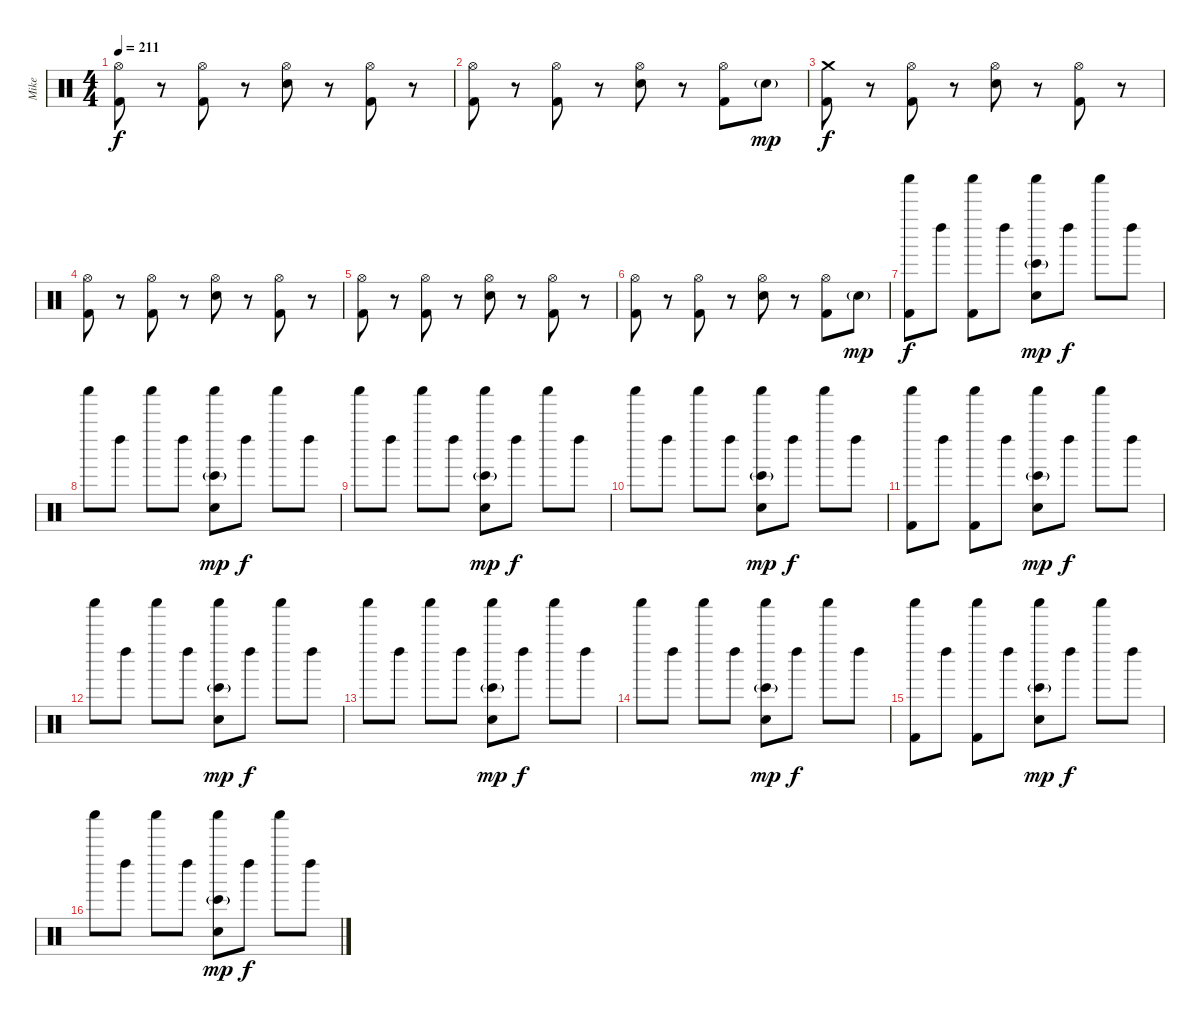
\track ("Mike" "Mike") {instrument percussion}
\staff {score}
\articulation defaults
\ts (4 4)
\tempo 211
\clef neutral
\ks c
("Hi-Hat (open)" "Kick (hit) 2").8{dy f} r.8 ("Hi-Hat (open)" "Kick (hit) 2").8 r.8 ("Hi-Hat (open)" "Electric Snare (hit)").8 r.8 ("Hi-Hat (open)" "Kick (hit) 2").8 r.8 |
("Hi-Hat (open)" "Kick (hit) 2").8 r.8 ("Hi-Hat (open)" "Kick (hit) 2").8 r.8 ("Hi-Hat (open)" "Electric Snare (hit)").8 r.8 ("Hi-Hat (open)" "Kick (hit) 2").8 "Electric Snare (hit)"{g}.8{dy mp} |
("Crash medium (hit)" "Kick (hit) 2").8{dy f} r.8 ("Hi-Hat (open)" "Kick (hit) 2").8 r.8 ("Hi-Hat (open)" "Electric Snare (hit)").8 r.8 ("Hi-Hat (open)" "Kick (hit) 2").8 r.8 |
("Hi-Hat (open)" "Kick (hit) 2").8 r.8 ("Hi-Hat (open)" "Kick (hit) 2").8 r.8 ("Hi-Hat (open)" "Electric Snare (hit)").8 r.8 ("Hi-Hat (open)" "Kick (hit) 2").8 r.8 |
("Hi-Hat (open)" "Kick (hit) 2").8 r.8 ("Hi-Hat (open)" "Kick (hit) 2").8 r.8 ("Hi-Hat (open)" "Electric Snare (hit)").8 r.8 ("Hi-Hat (open)" "Kick (hit) 2").8 r.8 |
("Hi-Hat (open)" "Kick (hit) 2").8 r.8 ("Hi-Hat (open)" "Kick (hit) 2").8 r.8 ("Hi-Hat (open)" "Electric Snare (hit)").8 r.8 ("Hi-Hat (open)" "Kick (hit) 2").8 "Electric Snare (hit)"{g}.8{dy mp} |
("Shaker (hit)" "Kick (hit) 2").8{dy f} "Left Maraca (hit)".8 ("Shaker (hit)" "Kick (hit) 2").8 "Left Maraca (hit)".8 ("Shaker (hit)" "Bongo High (hit)"{g} "Electric Snare (hit)").8{dy mp} "Left Maraca (hit)".8{dy f} "Shaker (hit)".8 "Left Maraca (hit)".8 |
"Shaker (hit)".8 "Left Maraca (hit)".8 "Shaker (hit)".8 "Left Maraca (hit)".8 ("Shaker (hit)" "Bongo High (hit)"{g} "Electric Snare (hit)").8{dy mp} "Left Maraca (hit)".8{dy f} "Shaker (hit)".8 "Left Maraca (hit)".8 |
"Shaker (hit)".8 "Left Maraca (hit)".8 "Shaker (hit)".8 "Left Maraca (hit)".8 ("Shaker (hit)" "Bongo High (hit)"{g} "Electric Snare (hit)").8{dy mp} "Left Maraca (hit)".8{dy f} "Shaker (hit)".8 "Left Maraca (hit)".8 |
"Shaker (hit)".8 "Left Maraca (hit)".8 "Shaker (hit)".8 "Left Maraca (hit)".8 ("Shaker (hit)" "Bongo High (hit)"{g} "Electric Snare (hit)").8{dy mp} "Left Maraca (hit)".8{dy f} "Shaker (hit)".8 "Left Maraca (hit)".8 |
("Shaker (hit)" "Kick (hit) 2").8 "Left Maraca (hit)".8 ("Shaker (hit)" "Kick (hit) 2").8 "Left Maraca (hit)".8 ("Shaker (hit)" "Bongo High (hit)"{g} "Electric Snare (hit)").8{dy mp} "Left Maraca (hit)".8{dy f} "Shaker (hit)".8 "Left Maraca (hit)".8 |
"Shaker (hit)".8 "Left Maraca (hit)".8 "Shaker (hit)".8 "Left Maraca (hit)".8 ("Shaker (hit)" "Bongo High (hit)"{g} "Electric Snare (hit)").8{dy mp} "Left Maraca (hit)".8{dy f} "Shaker (hit)".8 "Left Maraca (hit)".8 |
"Shaker (hit)".8 "Left Maraca (hit)".8 "Shaker (hit)".8 "Left Maraca (hit)".8 ("Shaker (hit)" "Bongo High (hit)"{g} "Electric Snare (hit)").8{dy mp} "Left Maraca (hit)".8{dy f} "Shaker (hit)".8 "Left Maraca (hit)".8 |
"Shaker (hit)".8 "Left Maraca (hit)".8 "Shaker (hit)".8 "Left Maraca (hit)".8 ("Shaker (hit)" "Bongo High (hit)"{g} "Electric Snare (hit)").8{dy mp} "Left Maraca (hit)".8{dy f} "Shaker (hit)".8 "Left Maraca (hit)".8 |
("Shaker (hit)" "Kick (hit) 2").8 "Left Maraca (hit)".8 ("Shaker (hit)" "Kick (hit) 2").8 "Left Maraca (hit)".8 ("Shaker (hit)" "Bongo High (hit)"{g} "Electric Snare (hit)").8{dy mp} "Left Maraca (hit)".8{dy f} "Shaker (hit)".8 "Left Maraca (hit)".8 |
"Shaker (hit)".8 "Left Maraca (hit)".8 "Shaker (hit)".8 "Left Maraca (hit)".8 ("Shaker (hit)" "Bongo High (hit)"{g} "Electric Snare (hit)").8{dy mp} "Left Maraca (hit)".8{dy f} "Shaker (hit)".8 "Left Maraca (hit)".8
